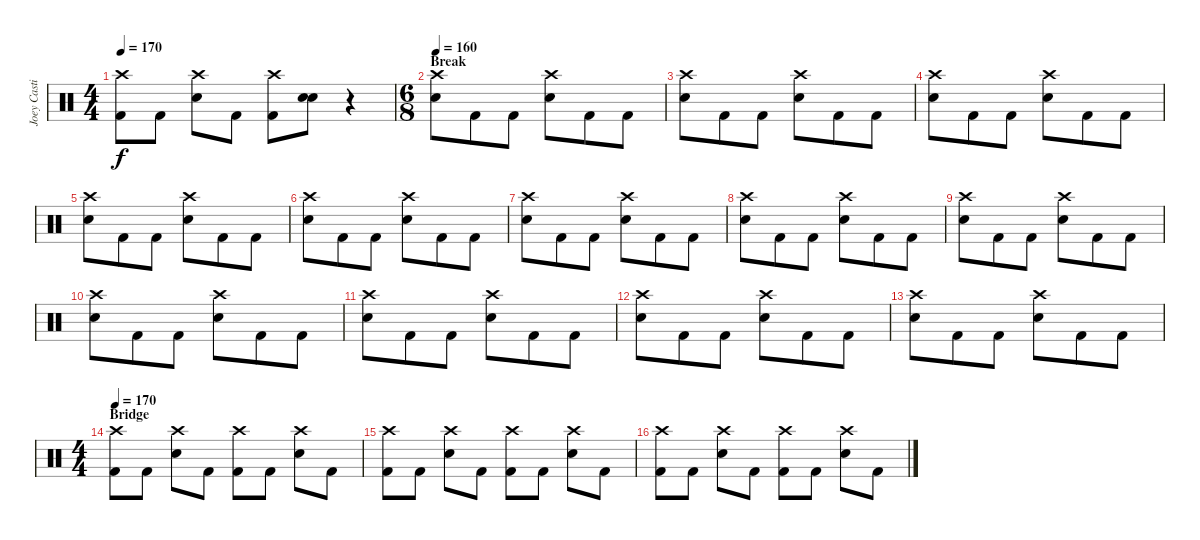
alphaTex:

\track ("Joey Castillo - drums" "Joey Casti") {instrument percussion}
\staff {score}
\articulation defaults
\ts (4 4)
\tempo 170
\clef neutral
\ks c
("Kick (hit) 2" "Crash high (hit)").8{dy f} "Kick (hit) 2".8 ("Electric Snare (hit)" "Crash high (hit)").8 "Kick (hit) 2".8 ("Kick (hit) 2" "Crash high (hit)").8 ("Snare (hit) 2" "Electric Snare (hit)").8 r.4 |
\ts (6 8)
\section ("" "Break")
\tempo 160
("Crash high (hit)" "Electric Snare (hit)").8 "Kick (hit) 2".8 "Kick (hit) 2".8 ("Crash high (hit)" "Electric Snare (hit)").8 "Kick (hit) 2".8 "Kick (hit) 2".8 |
("Crash high (hit)" "Electric Snare (hit)").8 "Kick (hit) 2".8 "Kick (hit) 2".8 ("Crash high (hit)" "Electric Snare (hit)").8 "Kick (hit) 2".8 "Kick (hit) 2".8 |
("Crash high (hit)" "Electric Snare (hit)").8 "Kick (hit) 2".8 "Kick (hit) 2".8 ("Crash high (hit)" "Electric Snare (hit)").8 "Kick (hit) 2".8 "Kick (hit) 2".8 |
("Crash high (hit)" "Electric Snare (hit)").8 "Kick (hit) 2".8 "Kick (hit) 2".8 ("Crash high (hit)" "Electric Snare (hit)").8 "Kick (hit) 2".8 "Kick (hit) 2".8 |
("Crash high (hit)" "Electric Snare (hit)").8 "Kick (hit) 2".8 "Kick (hit) 2".8 ("Crash high (hit)" "Electric Snare (hit)").8 "Kick (hit) 2".8 "Kick (hit) 2".8 |
("Crash high (hit)" "Electric Snare (hit)").8 "Kick (hit) 2".8 "Kick (hit) 2".8 ("Crash high (hit)" "Electric Snare (hit)").8 "Kick (hit) 2".8 "Kick (hit) 2".8 |
("Crash high (hit)" "Electric Snare (hit)").8 "Kick (hit) 2".8 "Kick (hit) 2".8 ("Crash high (hit)" "Electric Snare (hit)").8 "Kick (hit) 2".8 "Kick (hit) 2".8 |
("Crash high (hit)" "Electric Snare (hit)").8 "Kick (hit) 2".8 "Kick (hit) 2".8 ("Crash high (hit)" "Electric Snare (hit)").8 "Kick (hit) 2".8 "Kick (hit) 2".8 |
("Crash high (hit)" "Electric Snare (hit)").8 "Kick (hit) 2".8 "Kick (hit) 2".8 ("Crash high (hit)" "Electric Snare (hit)").8 "Kick (hit) 2".8 "Kick (hit) 2".8 |
("Crash high (hit)" "Electric Snare (hit)").8 "Kick (hit) 2".8 "Kick (hit) 2".8 ("Crash high (hit)" "Electric Snare (hit)").8 "Kick (hit) 2".8 "Kick (hit) 2".8 |
("Crash high (hit)" "Electric Snare (hit)").8 "Kick (hit) 2".8 "Kick (hit) 2".8 ("Crash high (hit)" "Electric Snare (hit)").8 "Kick (hit) 2".8 "Kick (hit) 2".8 |
("Crash high (hit)" "Electric Snare (hit)").8 "Kick (hit) 2".8 "Kick (hit) 2".8 ("Crash high (hit)" "Electric Snare (hit)").8 "Kick (hit) 2".8 "Kick (hit) 2".8 |
\ts (4 4)
\section ("" "Bridge")
\tempo 170
("Kick (hit) 2" "Crash high (hit)").8 "Kick (hit) 2".8 ("Electric Snare (hit)" "Crash high (hit)").8 "Kick (hit) 2".8 ("Kick (hit) 2" "Crash high (hit)").8 "Kick (hit) 2".8 ("Electric Snare (hit)" "Crash high (hit)").8 "Kick (hit) 2".8 |
("Kick (hit) 2" "Crash high (hit)").8 "Kick (hit) 2".8 ("Electric Snare (hit)" "Crash high (hit)").8 "Kick (hit) 2".8 ("Kick (hit) 2" "Crash high (hit)").8 "Kick (hit) 2".8 ("Electric Snare (hit)" "Crash high (hit)").8 "Kick (hit) 2".8 |
("Kick (hit) 2" "Crash high (hit)").8 "Kick (hit) 2".8 ("Electric Snare (hit)" "Crash high (hit)").8 "Kick (hit) 2".8 ("Kick (hit) 2" "Crash high (hit)").8 "Kick (hit) 2".8 ("Electric Snare (hit)" "Crash high (hit)").8 "Kick (hit) 2".8
